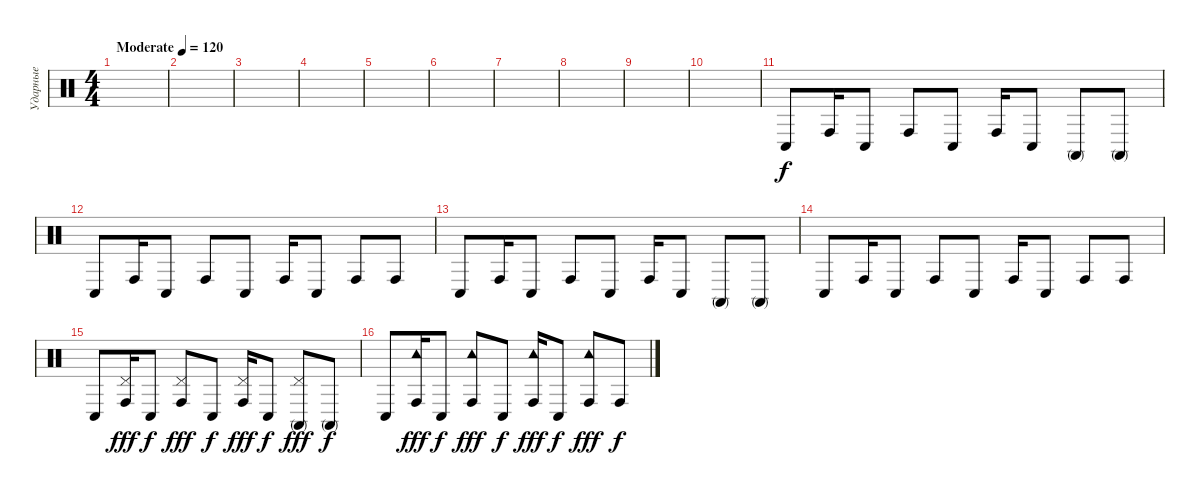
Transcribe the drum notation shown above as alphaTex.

\track ("Ударные" "Ударные") {instrument percussion}
\staff {score}
\articulation defaults
\ts (4 4)
\tempo (120 "Moderate")
\clef neutral
\ks c
|
|
|
|
|
|
|
|
|
|
"Conga low (hit)".8 "Conga high (hit)".16 "Conga low (hit)".8 "Conga high (hit)".8 "Conga low (hit)".8 "Conga high (hit)".16 "Conga low (hit)".8 "Conga high (mute)".8 "Conga high (mute)".8 |
"Conga low (hit)".8 "Conga high (hit)".16 "Conga low (hit)".8 "Conga high (hit)".8 "Conga low (hit)".8 "Conga high (hit)".16 "Conga low (hit)".8 "Conga high (hit)".8 "Conga high (hit)".8 |
"Conga low (hit)".8 "Conga high (hit)".16 "Conga low (hit)".8 "Conga high (hit)".8 "Conga low (hit)".8 "Conga high (hit)".16 "Conga low (hit)".8 "Conga high (mute)".8 "Conga high (mute)".8 |
"Conga low (hit)".8 "Conga high (hit)".16 "Conga low (hit)".8 "Conga high (hit)".8 "Conga low (hit)".8 "Conga high (hit)".16 "Conga low (hit)".8 "Conga high (hit)".8 "Conga high (hit)".8 |
"Conga low (hit)".8 ("Conga high (hit)" "Pedal Hi-Hat (hit)").16{dy fff} "Conga low (hit)".8{dy f} ("Conga high (hit)" "Pedal Hi-Hat (hit)").8{dy fff} "Conga low (hit)".8{dy f} ("Conga high (hit)" "Pedal Hi-Hat (hit)").16{dy fff} "Conga low (hit)".8{dy f} ("Conga high (mute)" "Pedal Hi-Hat (hit)").8{dy fff} "Conga high (mute)".8{dy f} |
"Conga low (hit)".8 ("Conga high (hit)" "Tambourine (hit)").16{dy fff} "Conga low (hit)".8{dy f} ("Conga high (hit)" "Tambourine (hit)").8{dy fff} "Conga low (hit)".8{dy f} ("Conga high (hit)" "Tambourine (hit)").16{dy fff} "Conga low (hit)".8{dy f} ("Conga high (hit)" "Tambourine (hit)").8{dy fff} "Conga high (hit)".8{dy f}
